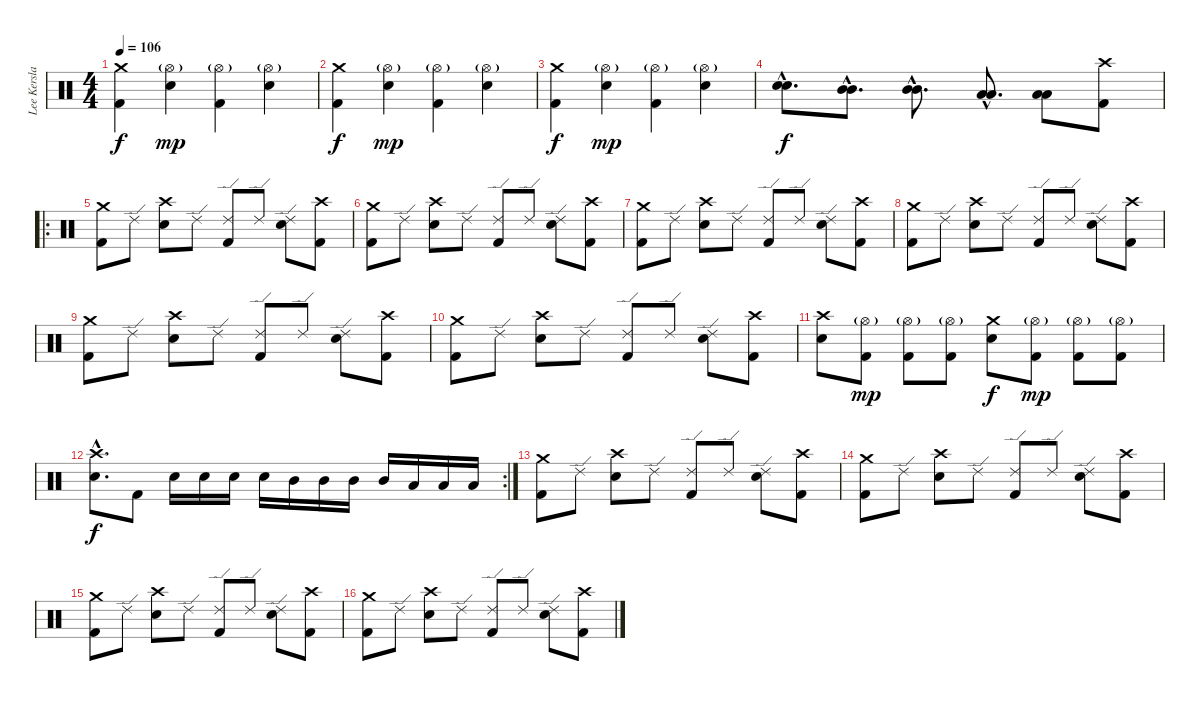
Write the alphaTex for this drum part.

\track ("Lee Kerslake" "Lee Kersla") {instrument percussion}
\staff {score}
\articulation defaults
\ts (4 4)
\tempo 106
\clef neutral
\ks c
("Crash medium (hit)" "Kick (hit) 2").4{dy f} ("Hi-Hat (open)"{g} "Snare (hit) 2").4{dy mp} ("Hi-Hat (open)"{g} "Kick (hit) 2").4 ("Hi-Hat (open)"{g} "Snare (hit) 2").4 |
("Crash medium (hit)" "Kick (hit) 2").4{dy f} ("Hi-Hat (open)"{g} "Snare (hit) 2").4{dy mp} ("Hi-Hat (open)"{g} "Kick (hit) 2").4 ("Hi-Hat (open)"{g} "Snare (hit) 2").4 |
("Crash medium (hit)" "Kick (hit) 2").4{dy f} ("Hi-Hat (open)"{g} "Snare (hit) 2").4{dy mp} ("Hi-Hat (open)"{g} "Kick (hit) 2").4 ("Hi-Hat (open)"{g} "Snare (hit) 2").4 |
("Snare (hit) 2"{hac} "Snare (hit) 2"{hac}).8{d bd 240 dy f} ("Mid Tom (hit)"{hac} "Mid Tom (hit)"{hac}).8{d bd 240} ("Mid Tom (hit)"{hac} "Mid Tom (hit)"{hac}).8{d bd 240} ("Low Tom (hit)"{hac} "Low Tom (hit)"{hac}).8{d bd 240} ("Low Tom (hit)" "Low Tom (hit)").8{bd 240} ("Crash high (hit)" "Kick (hit) 2").8{bd 240} |
\ro
("Crash medium (hit)" "Kick (hit) 2").8 "Ride (edge) 2".8 ("Crash high (hit)" "Snare (hit) 2").8 "Ride (edge) 2".8 ("Ride (edge) 2" "Kick (hit) 2").8 "Ride (edge) 2".8 ("Ride (edge) 2" "Snare (hit) 2").8 ("Crash high (hit)" "Kick (hit) 2").8 |
("Crash medium (hit)" "Kick (hit) 2").8 "Ride (edge) 2".8 ("Crash high (hit)" "Snare (hit) 2").8 "Ride (edge) 2".8 ("Ride (edge) 2" "Kick (hit) 2").8 "Ride (edge) 2".8 ("Ride (edge) 2" "Snare (hit) 2").8 ("Crash high (hit)" "Kick (hit) 2").8 |
("Crash medium (hit)" "Kick (hit) 2").8 "Ride (edge) 2".8 ("Crash high (hit)" "Snare (hit) 2").8 "Ride (edge) 2".8 ("Ride (edge) 2" "Kick (hit) 2").8 "Ride (edge) 2".8 ("Ride (edge) 2" "Snare (hit) 2").8 ("Crash high (hit)" "Kick (hit) 2").8 |
("Crash medium (hit)" "Kick (hit) 2").8 "Ride (edge) 2".8 ("Crash high (hit)" "Snare (hit) 2").8 "Ride (edge) 2".8 ("Ride (edge) 2" "Kick (hit) 2").8 "Ride (edge) 2".8 ("Ride (edge) 2" "Snare (hit) 2").8 ("Crash high (hit)" "Kick (hit) 2").8 |
("Crash medium (hit)" "Kick (hit) 2").8 "Ride (edge) 2".8 ("Crash high (hit)" "Snare (hit) 2").8 "Ride (edge) 2".8 ("Ride (edge) 2" "Kick (hit) 2").8 "Ride (edge) 2".8 ("Ride (edge) 2" "Snare (hit) 2").8 ("Crash high (hit)" "Kick (hit) 2").8 |
("Crash medium (hit)" "Kick (hit) 2").8 "Ride (edge) 2".8 ("Crash high (hit)" "Snare (hit) 2").8 "Ride (edge) 2".8 ("Ride (edge) 2" "Kick (hit) 2").8 "Ride (edge) 2".8 ("Ride (edge) 2" "Snare (hit) 2").8 ("Crash high (hit)" "Kick (hit) 2").8 |
("Crash high (hit)" "Snare (hit) 2").8 ("Hi-Hat (open)"{g} "Kick (hit) 2").8{dy mp} ("Hi-Hat (open)"{g} "Kick (hit) 2").8 ("Hi-Hat (open)"{g} "Kick (hit) 2").8 ("Crash medium (hit)" "Snare (hit) 2").8{dy f} ("Hi-Hat (open)"{g} "Kick (hit) 2").8{dy mp} ("Hi-Hat (open)"{g} "Kick (hit) 2").8 ("Hi-Hat (open)"{g} "Kick (hit) 2").8 |
\rc 2
("Crash high (hit)"{hac} "Snare (hit) 2"{hac}).8{d dy f} "Kick (hit) 2".8 "Snare (hit) 2".16 "Snare (hit) 2".16 "Snare (hit) 2".16 "Snare (hit) 2".16 "Mid Tom (hit)".16 "Mid Tom (hit)".16 "Mid Tom (hit)".16 "Mid Tom (hit)".16 "Low Tom (hit)".16 "Low Tom (hit)".16 "Low Tom (hit)".16 |
("Crash medium (hit)" "Kick (hit) 2").8 "Ride (edge) 2".8 ("Crash high (hit)" "Snare (hit) 2").8 "Ride (edge) 2".8 ("Ride (edge) 2" "Kick (hit) 2").8 "Ride (edge) 2".8 ("Ride (edge) 2" "Snare (hit) 2").8 ("Crash high (hit)" "Kick (hit) 2").8 |
("Crash medium (hit)" "Kick (hit) 2").8 "Ride (edge) 2".8 ("Crash high (hit)" "Snare (hit) 2").8 "Ride (edge) 2".8 ("Ride (edge) 2" "Kick (hit) 2").8 "Ride (edge) 2".8 ("Ride (edge) 2" "Snare (hit) 2").8 ("Crash high (hit)" "Kick (hit) 2").8 |
("Crash medium (hit)" "Kick (hit) 2").8 "Ride (edge) 2".8 ("Crash high (hit)" "Snare (hit) 2").8 "Ride (edge) 2".8 ("Ride (edge) 2" "Kick (hit) 2").8 "Ride (edge) 2".8 ("Ride (edge) 2" "Snare (hit) 2").8 ("Crash high (hit)" "Kick (hit) 2").8 |
("Crash medium (hit)" "Kick (hit) 2").8 "Ride (edge) 2".8 ("Crash high (hit)" "Snare (hit) 2").8 "Ride (edge) 2".8 ("Ride (edge) 2" "Kick (hit) 2").8 "Ride (edge) 2".8 ("Ride (edge) 2" "Snare (hit) 2").8 ("Crash high (hit)" "Kick (hit) 2").8
